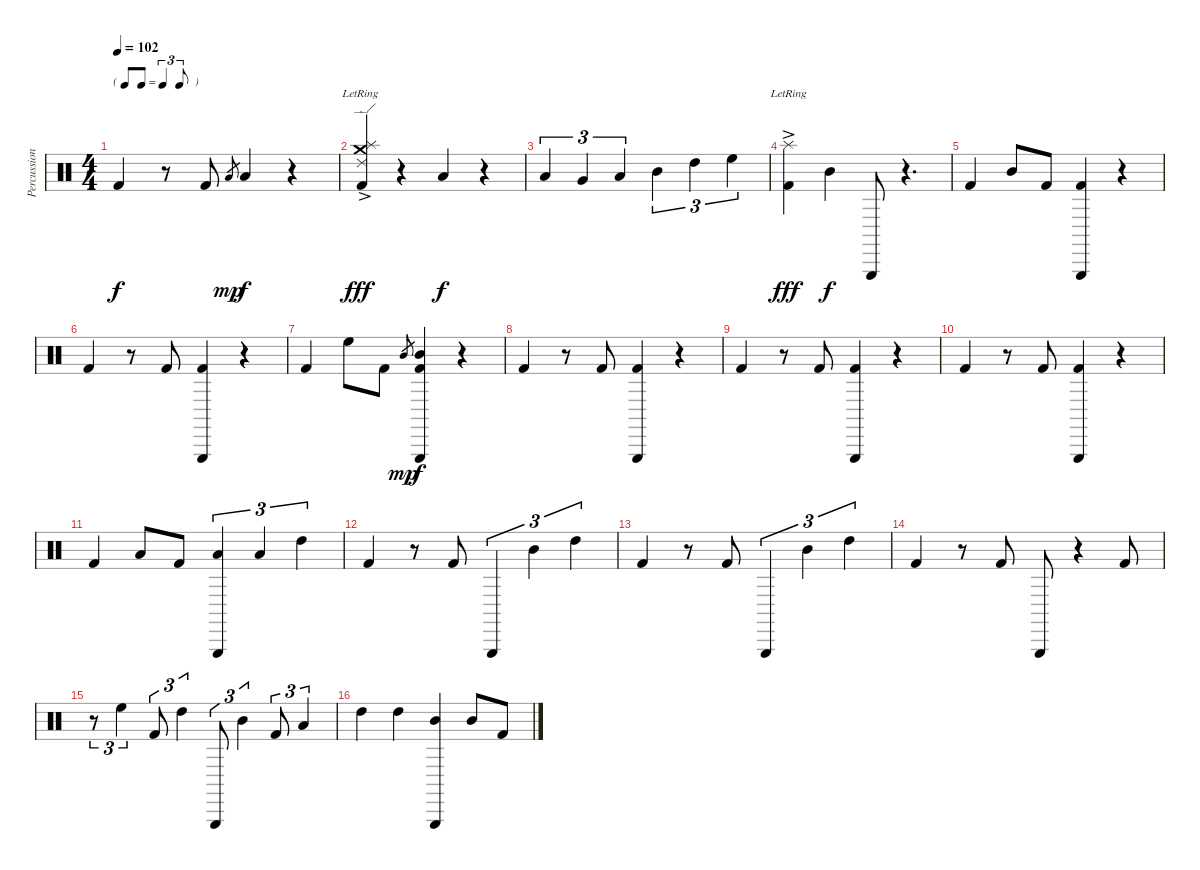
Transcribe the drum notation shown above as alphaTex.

\track ("Percussion" "Percussion") {instrument percussion}
\staff {score}
\articulation defaults
\ts (4 4)
\tf triplet8th
\tempo 102
\clef neutral
\ks c "Kick (hit) 2".4{dy f}
r.8 "Kick (hit) 2".8 "Low Tom (hit)".8{gr dy mp} "Low Tom (hit)".4{dy f} r.4 |
("Kick (hit) 2" "Crash medium (hit)"{ac lr} "Splash (hit)"{ac lr} "Ride (edge) 2"{ac lr}).4{dy fff} r.4 "Low Floor Tom (hit)".4{dy f} r.4 |
"Low Floor Tom (hit)".4{tu (3 2)} "Very Low Tom (hit)".4{tu (3 2)} "Low Tom (hit)".4{tu (3 2)} "Mid Tom (hit)".4{tu (3 2)} "High Tom (hit)".4{tu (3 2)} "High Floor Tom (hit)".4{tu (3 2)} |
("Kick (hit) 2" "Splash (hit)"{ac lr}).4{dy fff} "Mid Tom (hit)".4{dy f} "Triangle (hit)".8 r.4{d} |
"Kick (hit) 2".4 "Mid Tom (hit)".8 "Kick (hit) 2".8 ("Kick (hit) 2" "Triangle (hit)").4 r.4 |
"Kick (hit) 2".4 r.8 "Kick (hit) 2".8 ("Kick (hit) 2" "Triangle (hit)").4 r.4 |
"Kick (hit) 2".4 "High Floor Tom (hit)".8 "Kick (hit) 2".8 "Mid Tom (hit)".8{gr dy mp} ("Kick (hit) 2" "Mid Tom (hit)" "Triangle (hit)").4{dy f} r.4 |
"Kick (hit) 2".4 r.8 "Kick (hit) 2".8 ("Kick (hit) 2" "Triangle (hit)").4 r.4 |
"Kick (hit) 2".4 r.8 "Kick (hit) 2".8 ("Kick (hit) 2" "Triangle (hit)").4 r.4 |
"Kick (hit) 2".4 r.8 "Kick (hit) 2".8 ("Kick (hit) 2" "Triangle (hit)").4 r.4 |
"Kick (hit) 2".4 "Low Tom (hit)".8 "Kick (hit) 2".8 ("Low Tom (hit)" "Triangle (hit)").4{tu (3 2)} "Low Tom (hit)".4{tu (3 2)} "High Tom (hit)".4{tu (3 2)} |
"Kick (hit) 2".4 r.8 "Kick (hit) 2".8 "Triangle (hit)".4{tu (3 2)} "Mid Tom (hit)".4{tu (3 2)} "High Tom (hit)".4{tu (3 2)} |
"Kick (hit) 2".4 r.8 "Kick (hit) 2".8 "Triangle (hit)".4{tu (3 2)} "Mid Tom (hit)".4{tu (3 2)} "High Tom (hit)".4{tu (3 2)} |
"Kick (hit) 2".4 r.8 "Kick (hit) 2".8 "Triangle (hit)".8 r.4 "Kick (hit) 2".8 |
r.8{tu (3 2)} "High Floor Tom (hit)".4{tu (3 2)} "Kick (hit) 2".8{tu (3 2)} "High Tom (hit)".4{tu (3 2)} "Triangle (hit)".8{tu (3 2)} "Mid Tom (hit)".4{tu (3 2)} "Kick (hit) 2".8{tu (3 2)} "Low Tom (hit)".4{tu (3 2)} |
"High Tom (hit)".4 "High Tom (hit)".4 ("Mid Tom (hit)" "Triangle (hit)").4 "Mid Tom (hit)".8 "Kick (hit) 2".8
